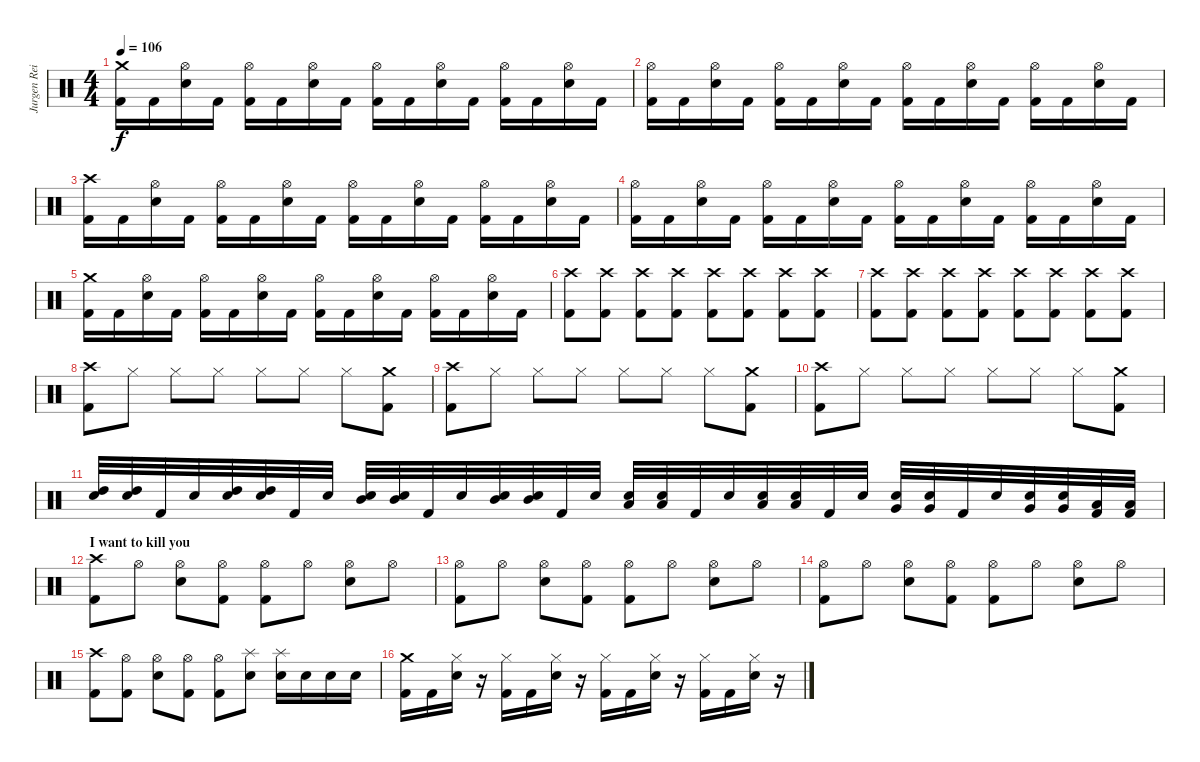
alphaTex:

\track ("Jurgen Reil" "Jurgen Rei") {instrument percussion}
\staff {score}
\articulation defaults
\ts (4 4)
\tempo 106
\clef neutral
\ks c
("Crash medium (hit)" "Kick (hit) 2").16{dy f} "Kick (hit) 2".16 ("Hi-Hat (open)" "Snare (hit) 2").16 "Kick (hit) 2".16 ("Hi-Hat (open)" "Kick (hit) 2").16 "Kick (hit) 2".16 ("Hi-Hat (open)" "Snare (hit) 2").16 "Kick (hit) 2".16 ("Hi-Hat (open)" "Kick (hit) 2").16 "Kick (hit) 2".16 ("Hi-Hat (open)" "Snare (hit) 2").16 "Kick (hit) 2".16 ("Hi-Hat (open)" "Kick (hit) 2").16 "Kick (hit) 2".16 ("Hi-Hat (open)" "Snare (hit) 2").16 "Kick (hit) 2".16 |
("Hi-Hat (open)" "Kick (hit) 2").16 "Kick (hit) 2".16 ("Hi-Hat (open)" "Snare (hit) 2").16 "Kick (hit) 2".16 ("Hi-Hat (open)" "Kick (hit) 2").16 "Kick (hit) 2".16 ("Hi-Hat (open)" "Snare (hit) 2").16 "Kick (hit) 2".16 ("Hi-Hat (open)" "Kick (hit) 2").16 "Kick (hit) 2".16 ("Hi-Hat (open)" "Snare (hit) 2").16 "Kick (hit) 2".16 ("Hi-Hat (open)" "Kick (hit) 2").16 "Kick (hit) 2".16 ("Hi-Hat (open)" "Snare (hit) 2").16 "Kick (hit) 2".16 |
("Crash high (hit)" "Kick (hit) 2").16 "Kick (hit) 2".16 ("Hi-Hat (open)" "Snare (hit) 2").16 "Kick (hit) 2".16 ("Hi-Hat (open)" "Kick (hit) 2").16 "Kick (hit) 2".16 ("Hi-Hat (open)" "Snare (hit) 2").16 "Kick (hit) 2".16 ("Hi-Hat (open)" "Kick (hit) 2").16 "Kick (hit) 2".16 ("Hi-Hat (open)" "Snare (hit) 2").16 "Kick (hit) 2".16 ("Hi-Hat (open)" "Kick (hit) 2").16 "Kick (hit) 2".16 ("Hi-Hat (open)" "Snare (hit) 2").16 "Kick (hit) 2".16 |
("Hi-Hat (open)" "Kick (hit) 2").16 "Kick (hit) 2".16 ("Hi-Hat (open)" "Snare (hit) 2").16 "Kick (hit) 2".16 ("Hi-Hat (open)" "Kick (hit) 2").16 "Kick (hit) 2".16 ("Hi-Hat (open)" "Snare (hit) 2").16 "Kick (hit) 2".16 ("Hi-Hat (open)" "Kick (hit) 2").16 "Kick (hit) 2".16 ("Hi-Hat (open)" "Snare (hit) 2").16 "Kick (hit) 2".16 ("Hi-Hat (open)" "Kick (hit) 2").16 "Kick (hit) 2".16 ("Hi-Hat (open)" "Snare (hit) 2").16 "Kick (hit) 2".16 |
("Crash medium (hit)" "Kick (hit) 2").16 "Kick (hit) 2".16 ("Hi-Hat (open)" "Snare (hit) 2").16 "Kick (hit) 2".16 ("Hi-Hat (open)" "Kick (hit) 2").16 "Kick (hit) 2".16 ("Hi-Hat (open)" "Snare (hit) 2").16 "Kick (hit) 2".16 ("Hi-Hat (open)" "Kick (hit) 2").16 "Kick (hit) 2".16 ("Hi-Hat (open)" "Snare (hit) 2").16 "Kick (hit) 2".16 ("Hi-Hat (open)" "Kick (hit) 2").16 "Kick (hit) 2".16 ("Hi-Hat (open)" "Snare (hit) 2").16 "Kick (hit) 2".16 |
("Crash high (hit)" "Kick (hit) 2").8 ("Crash high (hit)" "Kick (hit) 2").8 ("Crash high (hit)" "Kick (hit) 2").8 ("Crash high (hit)" "Kick (hit) 2").8 ("Crash high (hit)" "Kick (hit) 2").8 ("Crash high (hit)" "Kick (hit) 2").8 ("Crash high (hit)" "Kick (hit) 2").8 ("Crash high (hit)" "Kick (hit) 2").8 |
("Crash high (hit)" "Kick (hit) 2").8 ("Crash high (hit)" "Kick (hit) 2").8 ("Crash high (hit)" "Kick (hit) 2").8 ("Crash high (hit)" "Kick (hit) 2").8 ("Crash high (hit)" "Kick (hit) 2").8 ("Crash high (hit)" "Kick (hit) 2").8 ("Crash high (hit)" "Kick (hit) 2").8 ("Crash high (hit)" "Kick (hit) 2").8 |
("Crash high (hit)" "Kick (hit) 2").8 "Hi-Hat (closed)".8 "Hi-Hat (closed)".8 "Hi-Hat (closed)".8 "Hi-Hat (closed)".8 "Hi-Hat (closed)".8 "Hi-Hat (closed)".8 ("Crash medium (hit)" "Kick (hit) 2").8 |
("Crash high (hit)" "Kick (hit) 2").8 "Hi-Hat (closed)".8 "Hi-Hat (closed)".8 "Hi-Hat (closed)".8 "Hi-Hat (closed)".8 "Hi-Hat (closed)".8 "Hi-Hat (closed)".8 ("Crash medium (hit)" "Kick (hit) 2").8 |
("Crash high (hit)" "Kick (hit) 2").8 "Hi-Hat (closed)".8 "Hi-Hat (closed)".8 "Hi-Hat (closed)".8 "Hi-Hat (closed)".8 "Hi-Hat (closed)".8 "Hi-Hat (closed)".8 ("Crash medium (hit)" "Kick (hit) 2").8 |
("High Tom (hit)" "Snare (hit) 2").32 ("High Tom (hit)" "Snare (hit) 2").32 "Kick (hit) 2".32 "Snare (hit) 2".32 ("High Tom (hit)" "Snare (hit) 2").32 ("High Tom (hit)" "Snare (hit) 2").32 "Kick (hit) 2".32 "Snare (hit) 2".32 ("Mid Tom (hit)" "Snare (hit) 2").32 ("Mid Tom (hit)" "Snare (hit) 2").32 "Kick (hit) 2".32 "Snare (hit) 2".32 ("Mid Tom (hit)" "Snare (hit) 2").32 ("Mid Tom (hit)" "Snare (hit) 2").32 "Kick (hit) 2".32 "Snare (hit) 2".32 ("Low Tom (hit)" "Snare (hit) 2").32 ("Low Tom (hit)" "Snare (hit) 2").32 "Kick (hit) 2".32 "Snare (hit) 2".32 ("Low Tom (hit)" "Snare (hit) 2").32 ("Low Tom (hit)" "Snare (hit) 2").32 "Kick (hit) 2".32 "Snare (hit) 2".32 ("Very Low Tom (hit)" "Snare (hit) 2").32 ("Very Low Tom (hit)" "Snare (hit) 2").32 "Kick (hit) 2".32 "Snare (hit) 2".32 ("Very Low Tom (hit)" "Snare (hit) 2").32 ("Very Low Tom (hit)" "Snare (hit) 2").32 ("Low Floor Tom (hit)" "Kick (hit) 2").32 ("Low Floor Tom (hit)" "Kick (hit) 2").32 |
\section ("" "I want to kill you")
("Crash high (hit)" "Kick (hit) 2").8 "Hi-Hat (open)".8 ("Hi-Hat (open)" "Snare (hit) 2").8 ("Hi-Hat (open)" "Kick (hit) 2").8 ("Hi-Hat (open)" "Kick (hit) 2").8 "Hi-Hat (open)".8 ("Hi-Hat (open)" "Snare (hit) 2").8 "Hi-Hat (open)".8 |
("Hi-Hat (open)" "Kick (hit) 2").8 "Hi-Hat (open)".8 ("Hi-Hat (open)" "Snare (hit) 2").8 ("Hi-Hat (open)" "Kick (hit) 2").8 ("Hi-Hat (open)" "Kick (hit) 2").8 "Hi-Hat (open)".8 ("Hi-Hat (open)" "Snare (hit) 2").8 "Hi-Hat (open)".8 |
("Hi-Hat (open)" "Kick (hit) 2").8 "Hi-Hat (open)".8 ("Hi-Hat (open)" "Snare (hit) 2").8 ("Hi-Hat (open)" "Kick (hit) 2").8 ("Hi-Hat (open)" "Kick (hit) 2").8 "Hi-Hat (open)".8 ("Hi-Hat (open)" "Snare (hit) 2").8 "Hi-Hat (open)".8 |
("Crash high (hit)" "Kick (hit) 2").8 ("Hi-Hat (open)" "Kick (hit) 2").8 ("Hi-Hat (open)" "Snare (hit) 2").8 ("Hi-Hat (open)" "Kick (hit) 2").8 ("Hi-Hat (open)" "Kick (hit) 2").8 ("Splash (hit)" "Snare (hit) 2").8 ("Splash (hit)" "Snare (hit) 2").16 "Snare (hit) 2".16 "Snare (hit) 2".16 "Snare (hit) 2".16 |
("Crash medium (hit)" "Kick (hit) 2").16 "Kick (hit) 2".16 ("Hi-Hat (closed)" "Snare (hit) 2").16 r.16 ("Hi-Hat (closed)" "Kick (hit) 2").16 "Kick (hit) 2".16 ("Hi-Hat (closed)" "Snare (hit) 2").16 r.16 ("Hi-Hat (closed)" "Kick (hit) 2").16 "Kick (hit) 2".16 ("Hi-Hat (closed)" "Snare (hit) 2").16 r.16 ("Hi-Hat (closed)" "Kick (hit) 2").16 "Kick (hit) 2".16 ("Hi-Hat (closed)" "Snare (hit) 2").16 r.16
